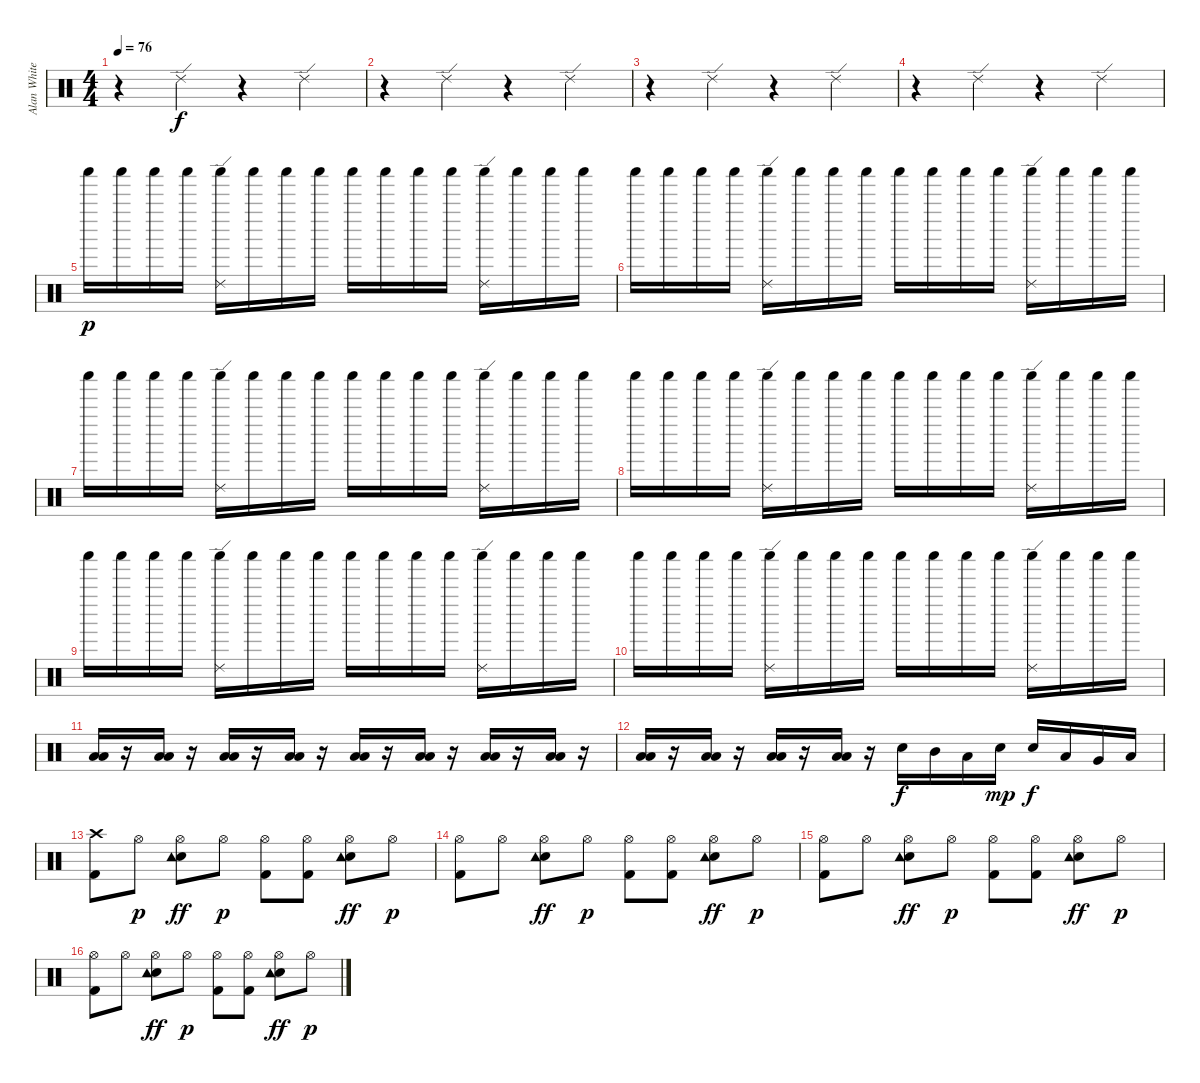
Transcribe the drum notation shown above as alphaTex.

\track ("Alan White" "Alan White") {instrument percussion}
\staff {score}
\articulation defaults
\ts (4 4)
\tempo 76
\clef neutral
\ks c
r.4{dy f} "Ride (edge) 2".4 r.4 "Ride (edge) 2".4 |
r.4 "Ride (edge) 2".4 r.4 "Ride (edge) 2".4 |
r.4 "Ride (edge) 2".4 r.4 "Ride (edge) 2".4 |
r.4 "Ride (edge) 2".4 r.4 "Ride (edge) 2".4 |
"Shaker (hit)".16{dy p volume 11} "Shaker (hit)".16 "Shaker (hit)".16 "Shaker (hit)".16 ("Ride (edge) 2" "Shaker (hit)").16 "Shaker (hit)".16 "Shaker (hit)".16 "Shaker (hit)".16 "Shaker (hit)".16 "Shaker (hit)".16 "Shaker (hit)".16 "Shaker (hit)".16 ("Ride (edge) 2" "Shaker (hit)").16 "Shaker (hit)".16 "Shaker (hit)".16 "Shaker (hit)".16 |
"Shaker (hit)".16{volume 11} "Shaker (hit)".16 "Shaker (hit)".16 "Shaker (hit)".16 ("Ride (edge) 2" "Shaker (hit)").16 "Shaker (hit)".16 "Shaker (hit)".16 "Shaker (hit)".16 "Shaker (hit)".16 "Shaker (hit)".16 "Shaker (hit)".16 "Shaker (hit)".16 ("Ride (edge) 2" "Shaker (hit)").16 "Shaker (hit)".16 "Shaker (hit)".16 "Shaker (hit)".16 |
"Shaker (hit)".16{volume 11} "Shaker (hit)".16 "Shaker (hit)".16 "Shaker (hit)".16 ("Ride (edge) 2" "Shaker (hit)").16 "Shaker (hit)".16 "Shaker (hit)".16 "Shaker (hit)".16 "Shaker (hit)".16 "Shaker (hit)".16 "Shaker (hit)".16 "Shaker (hit)".16 ("Ride (edge) 2" "Shaker (hit)").16 "Shaker (hit)".16 "Shaker (hit)".16 "Shaker (hit)".16 |
"Shaker (hit)".16{volume 11} "Shaker (hit)".16 "Shaker (hit)".16 "Shaker (hit)".16 ("Ride (edge) 2" "Shaker (hit)").16 "Shaker (hit)".16 "Shaker (hit)".16 "Shaker (hit)".16 "Shaker (hit)".16 "Shaker (hit)".16 "Shaker (hit)".16 "Shaker (hit)".16 ("Ride (edge) 2" "Shaker (hit)").16 "Shaker (hit)".16 "Shaker (hit)".16 "Shaker (hit)".16 |
"Shaker (hit)".16{volume 11} "Shaker (hit)".16 "Shaker (hit)".16 "Shaker (hit)".16 ("Ride (edge) 2" "Shaker (hit)").16 "Shaker (hit)".16 "Shaker (hit)".16 "Shaker (hit)".16 "Shaker (hit)".16 "Shaker (hit)".16 "Shaker (hit)".16 "Shaker (hit)".16 ("Ride (edge) 2" "Shaker (hit)").16 "Shaker (hit)".16 "Shaker (hit)".16 "Shaker (hit)".16 |
"Shaker (hit)".16{volume 11} "Shaker (hit)".16 "Shaker (hit)".16 "Shaker (hit)".16 ("Ride (edge) 2" "Shaker (hit)").16 "Shaker (hit)".16 "Shaker (hit)".16 "Shaker (hit)".16 "Shaker (hit)".16 "Shaker (hit)".16 "Shaker (hit)".16 "Shaker (hit)".16 ("Ride (edge) 2" "Shaker (hit)").16 "Shaker (hit)".16 "Shaker (hit)".16 "Shaker (hit)".16 |
("Low Tom (hit)" "Low Floor Tom (hit)").16{volume 16} r.16 ("Low Tom (hit)" "Low Floor Tom (hit)").16 r.16 ("Low Tom (hit)" "Low Floor Tom (hit)").16 r.16 ("Low Tom (hit)" "Low Floor Tom (hit)").16 r.16 ("Low Tom (hit)" "Low Floor Tom (hit)").16 r.16 ("Low Tom (hit)" "Low Floor Tom (hit)").16 r.16 ("Low Tom (hit)" "Low Floor Tom (hit)").16 r.16 ("Low Tom (hit)" "Low Floor Tom (hit)").16 r.16 |
("Low Tom (hit)" "Low Floor Tom (hit)").16 r.16 ("Low Tom (hit)" "Low Floor Tom (hit)").16 r.16 ("Low Tom (hit)" "Low Floor Tom (hit)").16 r.16 ("Low Tom (hit)" "Low Floor Tom (hit)").16 r.16 "Snare (hit) 2".16{dy f} "Mid Tom (hit)".16 "Low Tom (hit)".16 "Snare (hit) 2".16{dy mp} "Snare (hit) 2".16{dy f} "Low Tom (hit)".16 "Very Low Tom (hit)".16 "Low Floor Tom (hit)".16 |
("Crash high (hit)" "Kick (hit) 2").8 "Hi-Hat (open)".8{dy p} ("Hi-Hat (open)" "Snare (hit) 2" "Tambourine (hit)").8{dy ff} "Hi-Hat (open)".8{dy p} ("Hi-Hat (open)" "Kick (hit) 2").8 ("Hi-Hat (open)" "Kick (hit) 2").8 ("Hi-Hat (open)" "Snare (hit) 2" "Tambourine (hit)").8{dy ff} "Hi-Hat (open)".8{dy p} |
("Hi-Hat (open)" "Kick (hit) 2").8 "Hi-Hat (open)".8 ("Hi-Hat (open)" "Snare (hit) 2" "Tambourine (hit)").8{dy ff} "Hi-Hat (open)".8{dy p} ("Hi-Hat (open)" "Kick (hit) 2").8 ("Hi-Hat (open)" "Kick (hit) 2").8 ("Hi-Hat (open)" "Snare (hit) 2" "Tambourine (hit)").8{dy ff} "Hi-Hat (open)".8{dy p} |
("Hi-Hat (open)" "Kick (hit) 2").8 "Hi-Hat (open)".8 ("Hi-Hat (open)" "Snare (hit) 2" "Tambourine (hit)").8{dy ff} "Hi-Hat (open)".8{dy p} ("Hi-Hat (open)" "Kick (hit) 2").8 ("Hi-Hat (open)" "Kick (hit) 2").8 ("Hi-Hat (open)" "Snare (hit) 2" "Tambourine (hit)").8{dy ff} "Hi-Hat (open)".8{dy p} |
("Hi-Hat (open)" "Kick (hit) 2").8 "Hi-Hat (open)".8 ("Hi-Hat (open)" "Snare (hit) 2" "Tambourine (hit)").8{dy ff} "Hi-Hat (open)".8{dy p} ("Hi-Hat (open)" "Kick (hit) 2").8 ("Hi-Hat (open)" "Kick (hit) 2").8 ("Hi-Hat (open)" "Snare (hit) 2" "Tambourine (hit)").8{dy ff} "Hi-Hat (open)".8{dy p}
